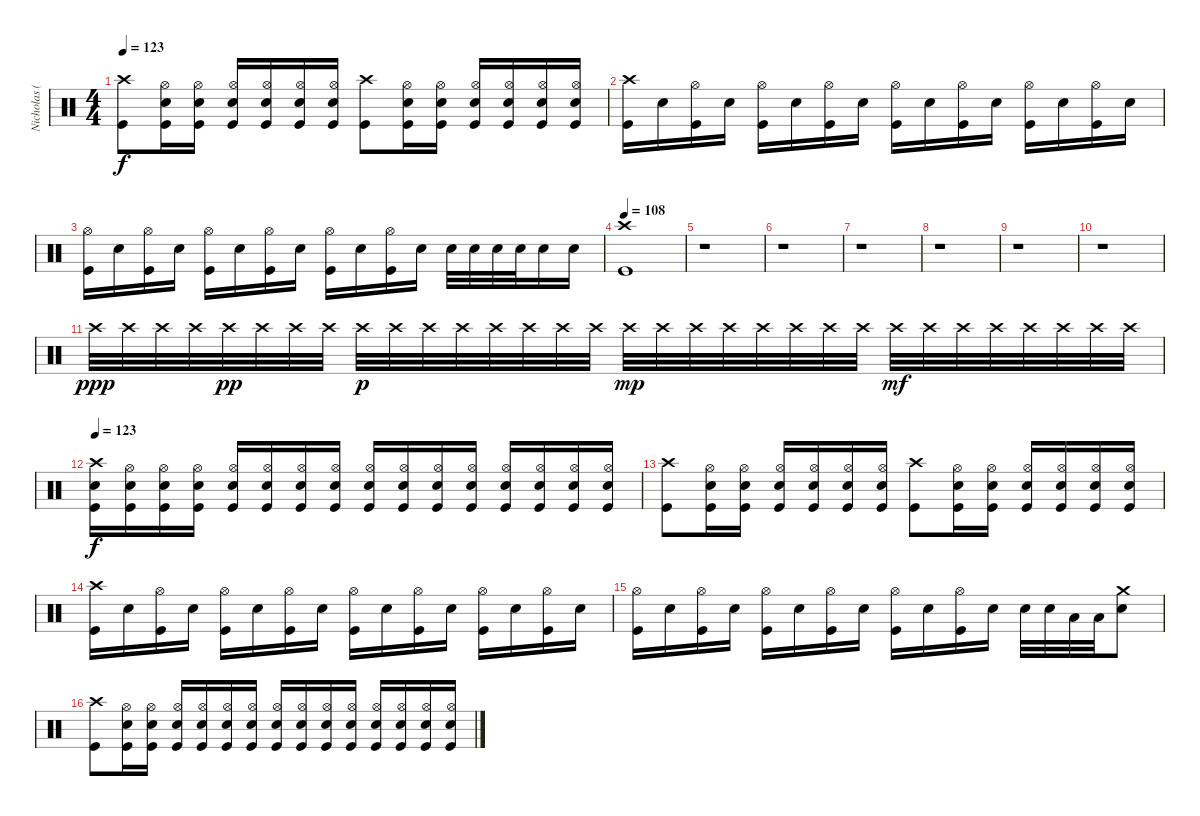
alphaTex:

\track ("Nicholas (Drums)" "Nicholas (") {instrument percussion}
\staff {score}
\articulation defaults
\ts (4 4)
\tempo 123
\clef neutral
\ks c
("Crash high (hit)" "Kick (hit)").8{dy f} ("Hi-Hat (open)" "Electric Snare (hit)" "Kick (hit)").16 ("Hi-Hat (open)" "Electric Snare (hit)" "Kick (hit)").16 ("Hi-Hat (open)" "Electric Snare (hit)" "Kick (hit)").16 ("Hi-Hat (open)" "Electric Snare (hit)" "Kick (hit)").16 ("Hi-Hat (open)" "Electric Snare (hit)" "Kick (hit)").16 ("Hi-Hat (open)" "Electric Snare (hit)" "Kick (hit)").16 ("Crash high (hit)" "Kick (hit)").8 ("Hi-Hat (open)" "Electric Snare (hit)" "Kick (hit)").16 ("Hi-Hat (open)" "Electric Snare (hit)" "Kick (hit)").16 ("Hi-Hat (open)" "Electric Snare (hit)" "Kick (hit)").16 ("Hi-Hat (open)" "Electric Snare (hit)" "Kick (hit)").16 ("Hi-Hat (open)" "Electric Snare (hit)" "Kick (hit)").16 ("Hi-Hat (open)" "Electric Snare (hit)" "Kick (hit)").16 |
("Crash high (hit)" "Kick (hit)").16 "Electric Snare (hit)".16 ("Hi-Hat (open)" "Kick (hit)").16 "Electric Snare (hit)".16 ("Hi-Hat (open)" "Kick (hit)").16 "Electric Snare (hit)".16 ("Hi-Hat (open)" "Kick (hit)").16 "Electric Snare (hit)".16 ("Hi-Hat (open)" "Kick (hit)").16 "Electric Snare (hit)".16 ("Hi-Hat (open)" "Kick (hit)").16 "Electric Snare (hit)".16 ("Hi-Hat (open)" "Kick (hit)").16 "Electric Snare (hit)".16 ("Hi-Hat (open)" "Kick (hit)").16 "Electric Snare (hit)".16 |
("Hi-Hat (open)" "Kick (hit)").16 "Electric Snare (hit)".16 ("Hi-Hat (open)" "Kick (hit)").16 "Electric Snare (hit)".16 ("Hi-Hat (open)" "Kick (hit)").16 "Electric Snare (hit)".16 ("Hi-Hat (open)" "Kick (hit)").16 "Electric Snare (hit)".16 ("Hi-Hat (open)" "Kick (hit)").16 "Electric Snare (hit)".16 ("Hi-Hat (open)" "Kick (hit)").16 "Electric Snare (hit)".16 "Electric Snare (hit)".32 "Electric Snare (hit)".32 "Electric Snare (hit)".32 "Electric Snare (hit)".32 "Electric Snare (hit)".16 "Electric Snare (hit)".16 |
\tempo 108
("Crash high (hit)" "Kick (hit)").1 |
r.1 |
r.1 |
r.1 |
r.1 |
r.1 |
r.1 |
"Crash high (hit)".32{dy ppp} "Crash high (hit)".32 "Crash high (hit)".32 "Crash high (hit)".32 "Crash high (hit)".32{dy pp} "Crash high (hit)".32 "Crash high (hit)".32 "Crash high (hit)".32 "Crash high (hit)".32{dy p} "Crash high (hit)".32 "Crash high (hit)".32 "Crash high (hit)".32 "Crash high (hit)".32 "Crash high (hit)".32 "Crash high (hit)".32 "Crash high (hit)".32 "Crash high (hit)".32{dy mp} "Crash high (hit)".32 "Crash high (hit)".32 "Crash high (hit)".32 "Crash high (hit)".32 "Crash high (hit)".32 "Crash high (hit)".32 "Crash high (hit)".32 "Crash high (hit)".32{dy mf} "Crash high (hit)".32 "Crash high (hit)".32 "Crash high (hit)".32 "Crash high (hit)".32 "Crash high (hit)".32 "Crash high (hit)".32 "Crash high (hit)".32 |
\tempo 123
("Crash high (hit)" "Electric Snare (hit)" "Kick (hit)").16{dy f} ("Hi-Hat (open)" "Electric Snare (hit)" "Kick (hit)").16 ("Hi-Hat (open)" "Electric Snare (hit)" "Kick (hit)").16 ("Hi-Hat (open)" "Electric Snare (hit)" "Kick (hit)").16 ("Hi-Hat (open)" "Electric Snare (hit)" "Kick (hit)").16 ("Hi-Hat (open)" "Electric Snare (hit)" "Kick (hit)").16 ("Hi-Hat (open)" "Electric Snare (hit)" "Kick (hit)").16 ("Hi-Hat (open)" "Electric Snare (hit)" "Kick (hit)").16 ("Hi-Hat (open)" "Electric Snare (hit)" "Kick (hit)").16 ("Hi-Hat (open)" "Electric Snare (hit)" "Kick (hit)").16 ("Hi-Hat (open)" "Electric Snare (hit)" "Kick (hit)").16 ("Hi-Hat (open)" "Electric Snare (hit)" "Kick (hit)").16 ("Hi-Hat (open)" "Electric Snare (hit)" "Kick (hit)").16 ("Hi-Hat (open)" "Electric Snare (hit)" "Kick (hit)").16 ("Hi-Hat (open)" "Electric Snare (hit)" "Kick (hit)").16 ("Hi-Hat (open)" "Electric Snare (hit)" "Kick (hit)").16 |
("Crash high (hit)" "Kick (hit)").8 ("Hi-Hat (open)" "Electric Snare (hit)" "Kick (hit)").16 ("Hi-Hat (open)" "Electric Snare (hit)" "Kick (hit)").16 ("Hi-Hat (open)" "Electric Snare (hit)" "Kick (hit)").16 ("Hi-Hat (open)" "Electric Snare (hit)" "Kick (hit)").16 ("Hi-Hat (open)" "Electric Snare (hit)" "Kick (hit)").16 ("Hi-Hat (open)" "Electric Snare (hit)" "Kick (hit)").16 ("Crash high (hit)" "Kick (hit)").8 ("Hi-Hat (open)" "Electric Snare (hit)" "Kick (hit)").16 ("Hi-Hat (open)" "Electric Snare (hit)" "Kick (hit)").16 ("Hi-Hat (open)" "Electric Snare (hit)" "Kick (hit)").16 ("Hi-Hat (open)" "Electric Snare (hit)" "Kick (hit)").16 ("Hi-Hat (open)" "Electric Snare (hit)" "Kick (hit)").16 ("Hi-Hat (open)" "Electric Snare (hit)" "Kick (hit)").16 |
("Crash high (hit)" "Kick (hit)").16 "Electric Snare (hit)".16 ("Hi-Hat (open)" "Kick (hit)").16 "Electric Snare (hit)".16 ("Hi-Hat (open)" "Kick (hit)").16 "Electric Snare (hit)".16 ("Hi-Hat (open)" "Kick (hit)").16 "Electric Snare (hit)".16 ("Hi-Hat (open)" "Kick (hit)").16 "Electric Snare (hit)".16 ("Hi-Hat (open)" "Kick (hit)").16 "Electric Snare (hit)".16 ("Hi-Hat (open)" "Kick (hit)").16 "Electric Snare (hit)".16 ("Hi-Hat (open)" "Kick (hit)").16 "Electric Snare (hit)".16 |
("Hi-Hat (open)" "Kick (hit)").16 "Electric Snare (hit)".16 ("Hi-Hat (open)" "Kick (hit)").16 "Electric Snare (hit)".16 ("Hi-Hat (open)" "Kick (hit)").16 "Electric Snare (hit)".16 ("Hi-Hat (open)" "Kick (hit)").16 "Electric Snare (hit)".16 ("Hi-Hat (open)" "Kick (hit)").16 "Electric Snare (hit)".16 ("Hi-Hat (open)" "Kick (hit)").16 "Electric Snare (hit)".16 "Electric Snare (hit)".32 "Electric Snare (hit)".32 "Low Tom (hit)".32 "Low Tom (hit)".32 ("Crash medium (hit)" "Electric Snare (hit)").8 |
("Crash high (hit)" "Kick (hit)").8 ("Hi-Hat (open)" "Electric Snare (hit)" "Kick (hit)").16 ("Hi-Hat (open)" "Electric Snare (hit)" "Kick (hit)").16 ("Hi-Hat (open)" "Electric Snare (hit)" "Kick (hit)").16 ("Hi-Hat (open)" "Electric Snare (hit)" "Kick (hit)").16 ("Hi-Hat (open)" "Electric Snare (hit)" "Kick (hit)").16 ("Hi-Hat (open)" "Electric Snare (hit)" "Kick (hit)").16 ("Hi-Hat (open)" "Electric Snare (hit)" "Kick (hit)").16 ("Hi-Hat (open)" "Electric Snare (hit)" "Kick (hit)").16 ("Hi-Hat (open)" "Electric Snare (hit)" "Kick (hit)").16 ("Hi-Hat (open)" "Electric Snare (hit)" "Kick (hit)").16 ("Hi-Hat (open)" "Electric Snare (hit)" "Kick (hit)").16 ("Hi-Hat (open)" "Electric Snare (hit)" "Kick (hit)").16 ("Hi-Hat (open)" "Electric Snare (hit)" "Kick (hit)").16 ("Hi-Hat (open)" "Electric Snare (hit)" "Kick (hit)").16
